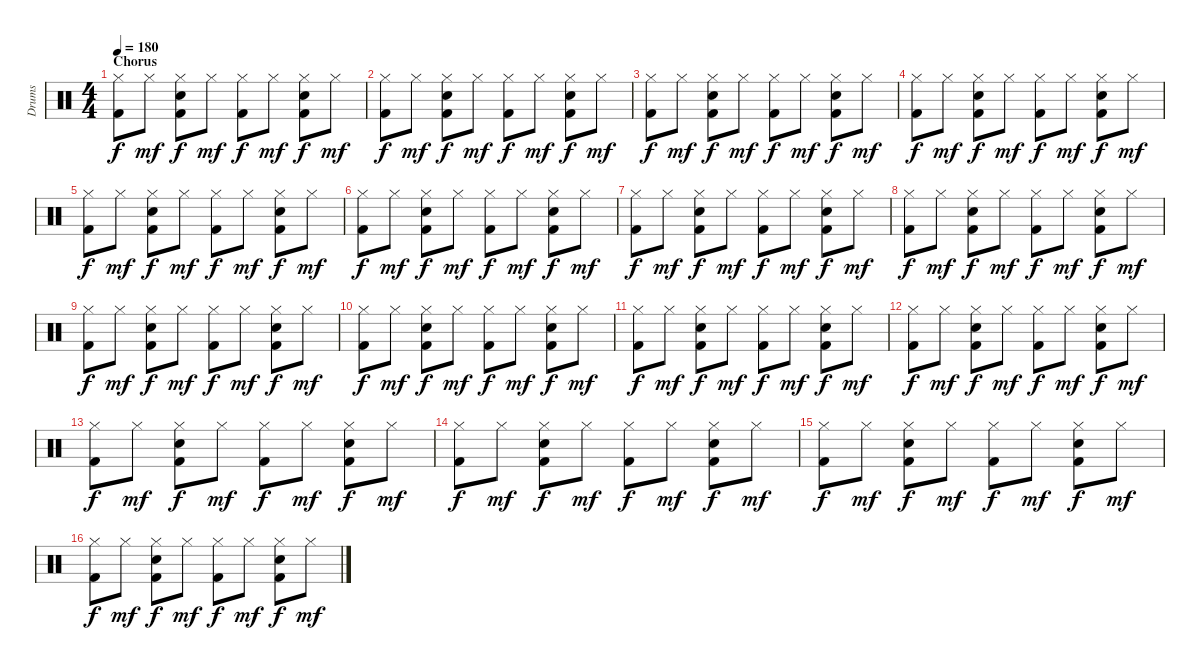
\track ("Drums" "Drums") {instrument percussion}
\staff {score}
\articulation defaults
\ts (4 4)
\section ("" "Chorus")
\tempo 180
\clef neutral
\ks c
("Hi-Hat (closed)" "Kick (hit) 2").8{dy f} "Hi-Hat (closed)".8{dy mf} ("Hi-Hat (closed)" "Electric Snare (hit)" "Kick (hit) 2").8{dy f} "Hi-Hat (closed)".8{dy mf} ("Hi-Hat (closed)" "Kick (hit) 2").8{dy f} "Hi-Hat (closed)".8{dy mf} ("Hi-Hat (closed)" "Electric Snare (hit)" "Kick (hit) 2").8{dy f} "Hi-Hat (closed)".8{dy mf} |
("Hi-Hat (closed)" "Kick (hit) 2").8{dy f} "Hi-Hat (closed)".8{dy mf} ("Hi-Hat (closed)" "Electric Snare (hit)" "Kick (hit) 2").8{dy f} "Hi-Hat (closed)".8{dy mf} ("Hi-Hat (closed)" "Kick (hit) 2").8{dy f} "Hi-Hat (closed)".8{dy mf} ("Hi-Hat (closed)" "Electric Snare (hit)" "Kick (hit) 2").8{dy f} "Hi-Hat (closed)".8{dy mf} |
("Hi-Hat (closed)" "Kick (hit) 2").8{dy f} "Hi-Hat (closed)".8{dy mf} ("Hi-Hat (closed)" "Electric Snare (hit)" "Kick (hit) 2").8{dy f} "Hi-Hat (closed)".8{dy mf} ("Hi-Hat (closed)" "Kick (hit) 2").8{dy f} "Hi-Hat (closed)".8{dy mf} ("Hi-Hat (closed)" "Electric Snare (hit)" "Kick (hit) 2").8{dy f} "Hi-Hat (closed)".8{dy mf} |
("Hi-Hat (closed)" "Kick (hit) 2").8{dy f} "Hi-Hat (closed)".8{dy mf} ("Hi-Hat (closed)" "Electric Snare (hit)" "Kick (hit) 2").8{dy f} "Hi-Hat (closed)".8{dy mf} ("Hi-Hat (closed)" "Kick (hit) 2").8{dy f} "Hi-Hat (closed)".8{dy mf} ("Hi-Hat (closed)" "Electric Snare (hit)" "Kick (hit) 2").8{dy f} "Hi-Hat (closed)".8{dy mf} |
("Hi-Hat (closed)" "Kick (hit) 2").8{dy f} "Hi-Hat (closed)".8{dy mf} ("Hi-Hat (closed)" "Electric Snare (hit)" "Kick (hit) 2").8{dy f} "Hi-Hat (closed)".8{dy mf} ("Hi-Hat (closed)" "Kick (hit) 2").8{dy f} "Hi-Hat (closed)".8{dy mf} ("Hi-Hat (closed)" "Electric Snare (hit)" "Kick (hit) 2").8{dy f} "Hi-Hat (closed)".8{dy mf} |
("Hi-Hat (closed)" "Kick (hit) 2").8{dy f} "Hi-Hat (closed)".8{dy mf} ("Hi-Hat (closed)" "Electric Snare (hit)" "Kick (hit) 2").8{dy f} "Hi-Hat (closed)".8{dy mf} ("Hi-Hat (closed)" "Kick (hit) 2").8{dy f} "Hi-Hat (closed)".8{dy mf} ("Hi-Hat (closed)" "Electric Snare (hit)" "Kick (hit) 2").8{dy f} "Hi-Hat (closed)".8{dy mf} |
("Hi-Hat (closed)" "Kick (hit) 2").8{dy f} "Hi-Hat (closed)".8{dy mf} ("Hi-Hat (closed)" "Electric Snare (hit)" "Kick (hit) 2").8{dy f} "Hi-Hat (closed)".8{dy mf} ("Hi-Hat (closed)" "Kick (hit) 2").8{dy f} "Hi-Hat (closed)".8{dy mf} ("Hi-Hat (closed)" "Electric Snare (hit)" "Kick (hit) 2").8{dy f} "Hi-Hat (closed)".8{dy mf} |
("Hi-Hat (closed)" "Kick (hit) 2").8{dy f} "Hi-Hat (closed)".8{dy mf} ("Hi-Hat (closed)" "Electric Snare (hit)" "Kick (hit) 2").8{dy f} "Hi-Hat (closed)".8{dy mf} ("Hi-Hat (closed)" "Kick (hit) 2").8{dy f} "Hi-Hat (closed)".8{dy mf} ("Hi-Hat (closed)" "Electric Snare (hit)" "Kick (hit) 2").8{dy f} "Hi-Hat (closed)".8{dy mf} |
("Hi-Hat (closed)" "Kick (hit) 2").8{dy f} "Hi-Hat (closed)".8{dy mf} ("Hi-Hat (closed)" "Electric Snare (hit)" "Kick (hit) 2").8{dy f} "Hi-Hat (closed)".8{dy mf} ("Hi-Hat (closed)" "Kick (hit) 2").8{dy f} "Hi-Hat (closed)".8{dy mf} ("Hi-Hat (closed)" "Electric Snare (hit)" "Kick (hit) 2").8{dy f} "Hi-Hat (closed)".8{dy mf} |
("Hi-Hat (closed)" "Kick (hit) 2").8{dy f} "Hi-Hat (closed)".8{dy mf} ("Hi-Hat (closed)" "Electric Snare (hit)" "Kick (hit) 2").8{dy f} "Hi-Hat (closed)".8{dy mf} ("Hi-Hat (closed)" "Kick (hit) 2").8{dy f} "Hi-Hat (closed)".8{dy mf} ("Hi-Hat (closed)" "Electric Snare (hit)" "Kick (hit) 2").8{dy f} "Hi-Hat (closed)".8{dy mf} |
("Hi-Hat (closed)" "Kick (hit) 2").8{dy f} "Hi-Hat (closed)".8{dy mf} ("Hi-Hat (closed)" "Electric Snare (hit)" "Kick (hit) 2").8{dy f} "Hi-Hat (closed)".8{dy mf} ("Hi-Hat (closed)" "Kick (hit) 2").8{dy f} "Hi-Hat (closed)".8{dy mf} ("Hi-Hat (closed)" "Electric Snare (hit)" "Kick (hit) 2").8{dy f} "Hi-Hat (closed)".8{dy mf} |
("Hi-Hat (closed)" "Kick (hit) 2").8{dy f} "Hi-Hat (closed)".8{dy mf} ("Hi-Hat (closed)" "Electric Snare (hit)" "Kick (hit) 2").8{dy f} "Hi-Hat (closed)".8{dy mf} ("Hi-Hat (closed)" "Kick (hit) 2").8{dy f} "Hi-Hat (closed)".8{dy mf} ("Hi-Hat (closed)" "Electric Snare (hit)" "Kick (hit) 2").8{dy f} "Hi-Hat (closed)".8{dy mf} |
("Hi-Hat (closed)" "Kick (hit) 2").8{dy f} "Hi-Hat (closed)".8{dy mf} ("Hi-Hat (closed)" "Electric Snare (hit)" "Kick (hit) 2").8{dy f} "Hi-Hat (closed)".8{dy mf} ("Hi-Hat (closed)" "Kick (hit) 2").8{dy f} "Hi-Hat (closed)".8{dy mf} ("Hi-Hat (closed)" "Electric Snare (hit)" "Kick (hit) 2").8{dy f} "Hi-Hat (closed)".8{dy mf} |
("Hi-Hat (closed)" "Kick (hit) 2").8{dy f} "Hi-Hat (closed)".8{dy mf} ("Hi-Hat (closed)" "Electric Snare (hit)" "Kick (hit) 2").8{dy f} "Hi-Hat (closed)".8{dy mf} ("Hi-Hat (closed)" "Kick (hit) 2").8{dy f} "Hi-Hat (closed)".8{dy mf} ("Hi-Hat (closed)" "Electric Snare (hit)" "Kick (hit) 2").8{dy f} "Hi-Hat (closed)".8{dy mf} |
("Hi-Hat (closed)" "Kick (hit) 2").8{dy f} "Hi-Hat (closed)".8{dy mf} ("Hi-Hat (closed)" "Electric Snare (hit)" "Kick (hit) 2").8{dy f} "Hi-Hat (closed)".8{dy mf} ("Hi-Hat (closed)" "Kick (hit) 2").8{dy f} "Hi-Hat (closed)".8{dy mf} ("Hi-Hat (closed)" "Electric Snare (hit)" "Kick (hit) 2").8{dy f} "Hi-Hat (closed)".8{dy mf} |
("Hi-Hat (closed)" "Kick (hit) 2").8{dy f} "Hi-Hat (closed)".8{dy mf} ("Hi-Hat (closed)" "Electric Snare (hit)" "Kick (hit) 2").8{dy f} "Hi-Hat (closed)".8{dy mf} ("Hi-Hat (closed)" "Kick (hit) 2").8{dy f} "Hi-Hat (closed)".8{dy mf} ("Hi-Hat (closed)" "Electric Snare (hit)" "Kick (hit) 2").8{dy f} "Hi-Hat (closed)".8{dy mf}
